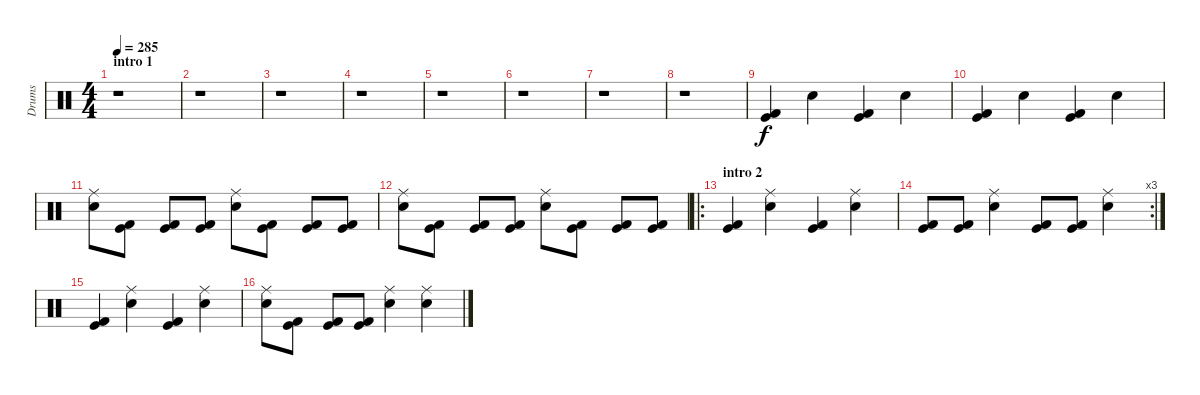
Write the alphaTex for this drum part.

\track ("Drums" "Drums") {instrument percussion}
\staff {score}
\articulation defaults
\ts (4 4)
\section ("" "intro 1")
\tempo 285
\clef neutral
\ks c
r.1{dy f} |
r.1 |
r.1 |
r.1 |
r.1 |
r.1 |
r.1 |
r.1 |
("Kick (hit)" "Kick (hit) 2").4 "Electric Snare (hit)".4 ("Kick (hit)" "Kick (hit) 2").4 "Electric Snare (hit)".4 |
("Kick (hit)" "Kick (hit) 2").4 "Electric Snare (hit)".4 ("Kick (hit)" "Kick (hit) 2").4 "Electric Snare (hit)".4 |
("Ride (middle)" "Electric Snare (hit)").8 ("Kick (hit)" "Kick (hit) 2").8 ("Kick (hit)" "Kick (hit) 2").8 ("Kick (hit)" "Kick (hit) 2").8 ("Ride (middle)" "Electric Snare (hit)").8 ("Kick (hit)" "Kick (hit) 2").8 ("Kick (hit)" "Kick (hit) 2").8 ("Kick (hit)" "Kick (hit) 2").8 |
("Ride (middle)" "Electric Snare (hit)").8 ("Kick (hit)" "Kick (hit) 2").8 ("Kick (hit)" "Kick (hit) 2").8 ("Kick (hit)" "Kick (hit) 2").8 ("Ride (middle)" "Electric Snare (hit)").8 ("Kick (hit)" "Kick (hit) 2").8 ("Kick (hit)" "Kick (hit) 2").8 ("Kick (hit)" "Kick (hit) 2").8 |
\ro
\section ("" "intro 2")
("Kick (hit)" "Kick (hit) 2").4 ("Ride (middle)" "Electric Snare (hit)").4 ("Kick (hit)" "Kick (hit) 2").4 ("Ride (middle)" "Electric Snare (hit)").4 |
\rc 3
("Kick (hit)" "Kick (hit) 2").8 ("Kick (hit)" "Kick (hit) 2").8 ("Ride (middle)" "Electric Snare (hit)").4 ("Kick (hit)" "Kick (hit) 2").8 ("Kick (hit)" "Kick (hit) 2").8 ("Ride (middle)" "Electric Snare (hit)").4 |
("Kick (hit)" "Kick (hit) 2").4 ("Ride (middle)" "Electric Snare (hit)").4 ("Kick (hit)" "Kick (hit) 2").4 ("Ride (middle)" "Electric Snare (hit)").4 |
("Ride (middle)" "Electric Snare (hit)").8 ("Kick (hit)" "Kick (hit) 2").8 ("Kick (hit)" "Kick (hit) 2").8 ("Kick (hit)" "Kick (hit) 2").8 ("Ride (middle)" "Electric Snare (hit)").4 ("Ride (middle)" "Electric Snare (hit)").4
